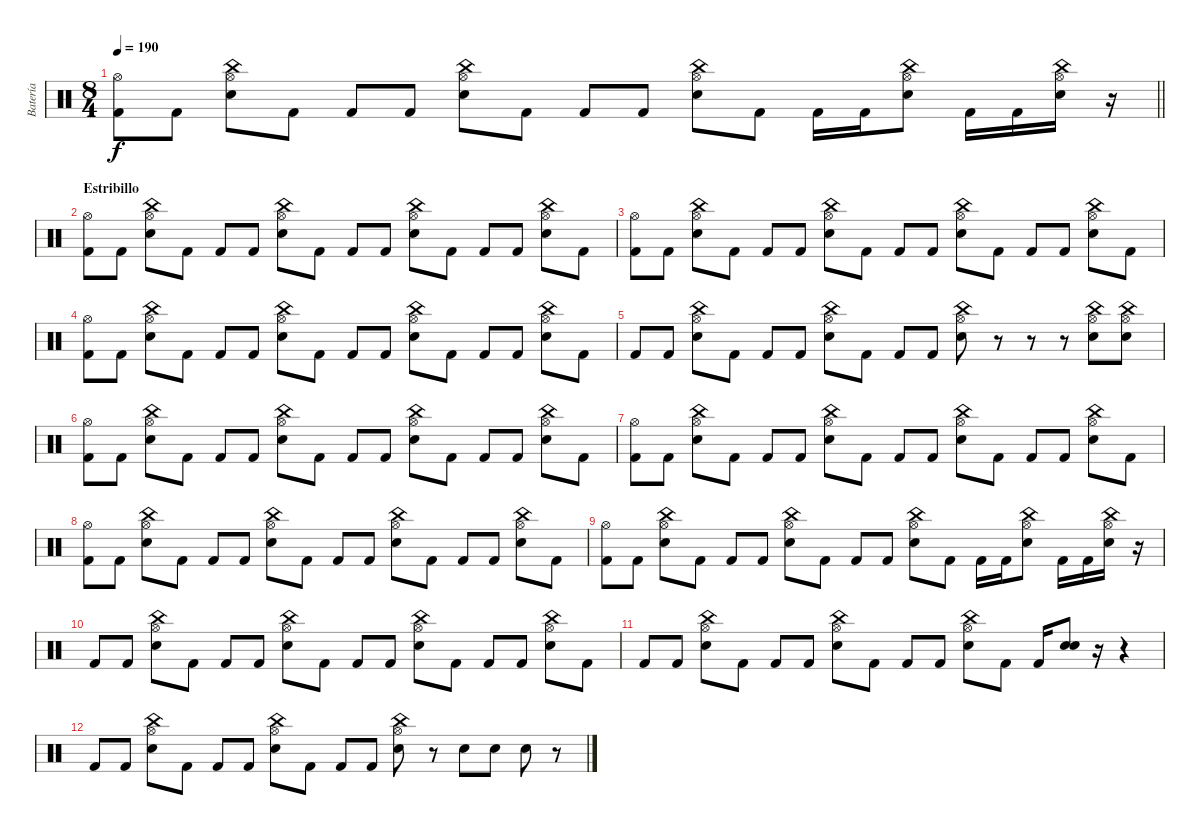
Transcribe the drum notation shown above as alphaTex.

\track ("Batería" "Batería") {instrument percussion}
\staff {score}
\articulation defaults
\ts (8 4)
\tempo 190
\clef neutral
\barLineRight lightlight
\ks c
("Kick (hit) 2" "Hi-Hat (open)").8{dy f} "Kick (hit) 2".8 ("Snare (hit) 2" "Hi-Hat (open)" "China (hit)").8 "Kick (hit) 2".8 "Kick (hit) 2".8 "Kick (hit) 2".8 ("Snare (hit) 2" "Hi-Hat (open)" "China (hit)").8 "Kick (hit) 2".8 "Kick (hit) 2".8 "Kick (hit) 2".8 ("Snare (hit) 2" "Hi-Hat (open)" "China (hit)").8 "Kick (hit) 2".8 "Kick (hit) 2".16 "Kick (hit) 2".16 ("Snare (hit) 2" "Hi-Hat (open)" "China (hit)").8 "Kick (hit) 2".16 "Kick (hit) 2".16 ("Snare (hit) 2" "China (hit)" "Hi-Hat (open)").16 r.16 |
\section ("" "Estribillo")
("Kick (hit) 2" "Hi-Hat (open)").8 "Kick (hit) 2".8 ("Snare (hit) 2" "Hi-Hat (open)" "China (hit)").8 "Kick (hit) 2".8 "Kick (hit) 2".8 "Kick (hit) 2".8 ("Snare (hit) 2" "Hi-Hat (open)" "China (hit)").8 "Kick (hit) 2".8 "Kick (hit) 2".8 "Kick (hit) 2".8 ("Snare (hit) 2" "Hi-Hat (open)" "China (hit)").8 "Kick (hit) 2".8 "Kick (hit) 2".8 "Kick (hit) 2".8 ("Snare (hit) 2" "Hi-Hat (open)" "China (hit)").8 "Kick (hit) 2".8 |
("Kick (hit) 2" "Hi-Hat (open)").8 "Kick (hit) 2".8 ("Snare (hit) 2" "Hi-Hat (open)" "China (hit)").8 "Kick (hit) 2".8 "Kick (hit) 2".8 "Kick (hit) 2".8 ("Snare (hit) 2" "Hi-Hat (open)" "China (hit)").8 "Kick (hit) 2".8 "Kick (hit) 2".8 "Kick (hit) 2".8 ("Snare (hit) 2" "Hi-Hat (open)" "China (hit)").8 "Kick (hit) 2".8 "Kick (hit) 2".8 "Kick (hit) 2".8 ("Snare (hit) 2" "Hi-Hat (open)" "China (hit)").8 "Kick (hit) 2".8 |
("Kick (hit) 2" "Hi-Hat (open)").8 "Kick (hit) 2".8 ("Snare (hit) 2" "Hi-Hat (open)" "China (hit)").8 "Kick (hit) 2".8 "Kick (hit) 2".8 "Kick (hit) 2".8 ("Snare (hit) 2" "Hi-Hat (open)" "China (hit)").8 "Kick (hit) 2".8 "Kick (hit) 2".8 "Kick (hit) 2".8 ("Snare (hit) 2" "Hi-Hat (open)" "China (hit)").8 "Kick (hit) 2".8 "Kick (hit) 2".8 "Kick (hit) 2".8 ("Snare (hit) 2" "Hi-Hat (open)" "China (hit)").8 "Kick (hit) 2".8 |
"Kick (hit) 2".8 "Kick (hit) 2".8 ("Snare (hit) 2" "Hi-Hat (open)" "China (hit)").8 "Kick (hit) 2".8 "Kick (hit) 2".8 "Kick (hit) 2".8 ("Snare (hit) 2" "Hi-Hat (open)" "China (hit)").8 "Kick (hit) 2".8 "Kick (hit) 2".8 "Kick (hit) 2".8 ("Snare (hit) 2" "Hi-Hat (open)" "China (hit)").8 r.8 r.8 r.8 ("Snare (hit) 2" "Hi-Hat (open)" "China (hit)").8 ("Snare (hit) 2" "Hi-Hat (open)" "China (hit)").8 |
("Kick (hit) 2" "Hi-Hat (open)").8 "Kick (hit) 2".8 ("Snare (hit) 2" "Hi-Hat (open)" "China (hit)").8 "Kick (hit) 2".8 "Kick (hit) 2".8 "Kick (hit) 2".8 ("Snare (hit) 2" "Hi-Hat (open)" "China (hit)").8 "Kick (hit) 2".8 "Kick (hit) 2".8 "Kick (hit) 2".8 ("Snare (hit) 2" "Hi-Hat (open)" "China (hit)").8 "Kick (hit) 2".8 "Kick (hit) 2".8 "Kick (hit) 2".8 ("Snare (hit) 2" "Hi-Hat (open)" "China (hit)").8 "Kick (hit) 2".8 |
("Kick (hit) 2" "Hi-Hat (open)").8 "Kick (hit) 2".8 ("Snare (hit) 2" "Hi-Hat (open)" "China (hit)").8 "Kick (hit) 2".8 "Kick (hit) 2".8 "Kick (hit) 2".8 ("Snare (hit) 2" "Hi-Hat (open)" "China (hit)").8 "Kick (hit) 2".8 "Kick (hit) 2".8 "Kick (hit) 2".8 ("Snare (hit) 2" "Hi-Hat (open)" "China (hit)").8 "Kick (hit) 2".8 "Kick (hit) 2".8 "Kick (hit) 2".8 ("Snare (hit) 2" "Hi-Hat (open)" "China (hit)").8 "Kick (hit) 2".8 |
("Kick (hit) 2" "Hi-Hat (open)").8 "Kick (hit) 2".8 ("Snare (hit) 2" "Hi-Hat (open)" "China (hit)").8 "Kick (hit) 2".8 "Kick (hit) 2".8 "Kick (hit) 2".8 ("Snare (hit) 2" "Hi-Hat (open)" "China (hit)").8 "Kick (hit) 2".8 "Kick (hit) 2".8 "Kick (hit) 2".8 ("Snare (hit) 2" "Hi-Hat (open)" "China (hit)").8 "Kick (hit) 2".8 "Kick (hit) 2".8 "Kick (hit) 2".8 ("Snare (hit) 2" "Hi-Hat (open)" "China (hit)").8 "Kick (hit) 2".8 |
("Kick (hit) 2" "Hi-Hat (open)").8 "Kick (hit) 2".8 ("Snare (hit) 2" "Hi-Hat (open)" "China (hit)").8 "Kick (hit) 2".8 "Kick (hit) 2".8 "Kick (hit) 2".8 ("Snare (hit) 2" "Hi-Hat (open)" "China (hit)").8 "Kick (hit) 2".8 "Kick (hit) 2".8 "Kick (hit) 2".8 ("Snare (hit) 2" "Hi-Hat (open)" "China (hit)").8 "Kick (hit) 2".8 "Kick (hit) 2".16 "Kick (hit) 2".16 ("Snare (hit) 2" "Hi-Hat (open)" "China (hit)").8 "Kick (hit) 2".16 "Kick (hit) 2".16 ("Snare (hit) 2" "China (hit)" "Hi-Hat (open)").16 r.16 |
"Kick (hit) 2".8 "Kick (hit) 2".8 ("Snare (hit) 2" "Hi-Hat (open)" "China (hit)").8 "Kick (hit) 2".8 "Kick (hit) 2".8 "Kick (hit) 2".8 ("Snare (hit) 2" "Hi-Hat (open)" "China (hit)").8 "Kick (hit) 2".8 "Kick (hit) 2".8 "Kick (hit) 2".8 ("Snare (hit) 2" "Hi-Hat (open)" "China (hit)").8 "Kick (hit) 2".8 "Kick (hit) 2".8 "Kick (hit) 2".8 ("Snare (hit) 2" "Hi-Hat (open)" "China (hit)").8 "Kick (hit) 2".8 |
"Kick (hit) 2".8 "Kick (hit) 2".8 ("Snare (hit) 2" "Hi-Hat (open)" "China (hit)").8 "Kick (hit) 2".8 "Kick (hit) 2".8 "Kick (hit) 2".8 ("Snare (hit) 2" "Hi-Hat (open)" "China (hit)").8 "Kick (hit) 2".8 "Kick (hit) 2".8 "Kick (hit) 2".8 ("Snare (hit) 2" "Hi-Hat (open)" "China (hit)").8 "Kick (hit) 2".8 "Kick (hit) 2".16 ("Snare (hit) 2" "Electric Snare (hit)").8 r.16 r.4 |
"Kick (hit) 2".8 "Kick (hit) 2".8 ("Snare (hit) 2" "Hi-Hat (open)" "China (hit)").8 "Kick (hit) 2".8 "Kick (hit) 2".8 "Kick (hit) 2".8 ("Snare (hit) 2" "Hi-Hat (open)" "China (hit)").8 "Kick (hit) 2".8 "Kick (hit) 2".8 "Kick (hit) 2".8 ("Snare (hit) 2" "Hi-Hat (open)" "China (hit)").8 r.8 "Snare (hit) 2".8 "Snare (hit) 2".8 "Snare (hit) 2".8 r.8
